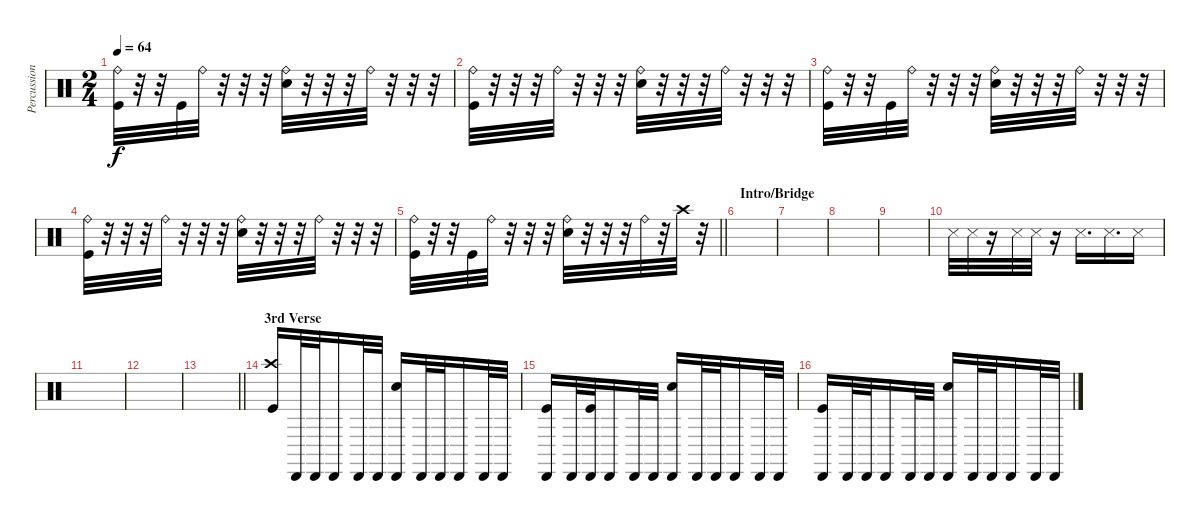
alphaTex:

\track ("Percussion" "Percussion") {instrument percussion}
\staff {score}
\articulation defaults
\ts (2 4)
\tempo 64
\clef neutral
\ks c
("Ride (bell)" "Kick (hit)").32{dy f} r.32 r.32 "Kick (hit)".32 "Ride (bell)".32 r.32 r.32 r.32 ("Ride (bell)" "Electric Snare (hit)").32 r.32 r.32 r.32 "Ride (bell)".32 r.32 r.32 r.32 |
("Ride (bell)" "Kick (hit)").32 r.32 r.32 r.32 "Ride (bell)".32 r.32 r.32 r.32 ("Ride (bell)" "Electric Snare (hit)").32 r.32 r.32 r.32 "Ride (bell)".32 r.32 r.32 r.32 |
("Ride (bell)" "Kick (hit)").32 r.32 r.32 "Kick (hit)".32 "Ride (bell)".32 r.32 r.32 r.32 ("Ride (bell)" "Electric Snare (hit)").32 r.32 r.32 r.32 "Ride (bell)".32 r.32 r.32 r.32 |
("Ride (bell)" "Kick (hit)").32 r.32 r.32 r.32 "Ride (bell)".32 r.32 r.32 r.32 ("Ride (bell)" "Electric Snare (hit)").32 r.32 r.32 r.32 "Ride (bell)".32 r.32 r.32 r.32 |
\barLineRight lightlight
("Ride (bell)" "Kick (hit)").32 r.32 r.32 "Kick (hit)".32 "Ride (bell)".32 r.32 r.32 r.32 ("Ride (bell)" "Electric Snare (hit)").32 r.32 r.32 r.32 "Ride (bell)".32 r.32 "Crash high (hit)".32 r.32 |
\section ("" "Intro/Bridge")
|
|
|
|
"Snare (side stick) 3".32 "Snare (side stick) 3".32 r.16 "Snare (side stick) 3".32 "Snare (side stick) 3".32 r.16 "Snare (side stick) 3".16{d} "Snare (side stick) 3".16{d} "Snare (side stick) 3".16 |
|
|
\barLineRight lightlight
|
\section ("" "3rd Verse")
("Crash high (hit)" "Kick (hit)").16 "Cabasa (hit)".32 "Cabasa (hit)".32 "Cabasa (hit)".16 "Cabasa (hit)".32 "Cabasa (hit)".32 ("Cabasa (hit)" "Electric Snare (hit)").16 "Cabasa (hit)".32 "Cabasa (hit)".32 "Cabasa (hit)".16 "Cabasa (hit)".32 "Cabasa (hit)".32 |
("Cabasa (hit)" "Kick (hit)").16 "Cabasa (hit)".32 ("Cabasa (hit)" "Kick (hit)").32 "Cabasa (hit)".16 "Cabasa (hit)".32 "Cabasa (hit)".32 ("Cabasa (hit)" "Electric Snare (hit)").16 "Cabasa (hit)".32 "Cabasa (hit)".32 "Cabasa (hit)".16 "Cabasa (hit)".32 "Cabasa (hit)".32 |
("Cabasa (hit)" "Kick (hit)").16 "Cabasa (hit)".32 "Cabasa (hit)".32 "Cabasa (hit)".16 "Cabasa (hit)".32 "Cabasa (hit)".32 ("Cabasa (hit)" "Electric Snare (hit)").16 "Cabasa (hit)".32 "Cabasa (hit)".32 "Cabasa (hit)".16 "Cabasa (hit)".32 "Cabasa (hit)".32
